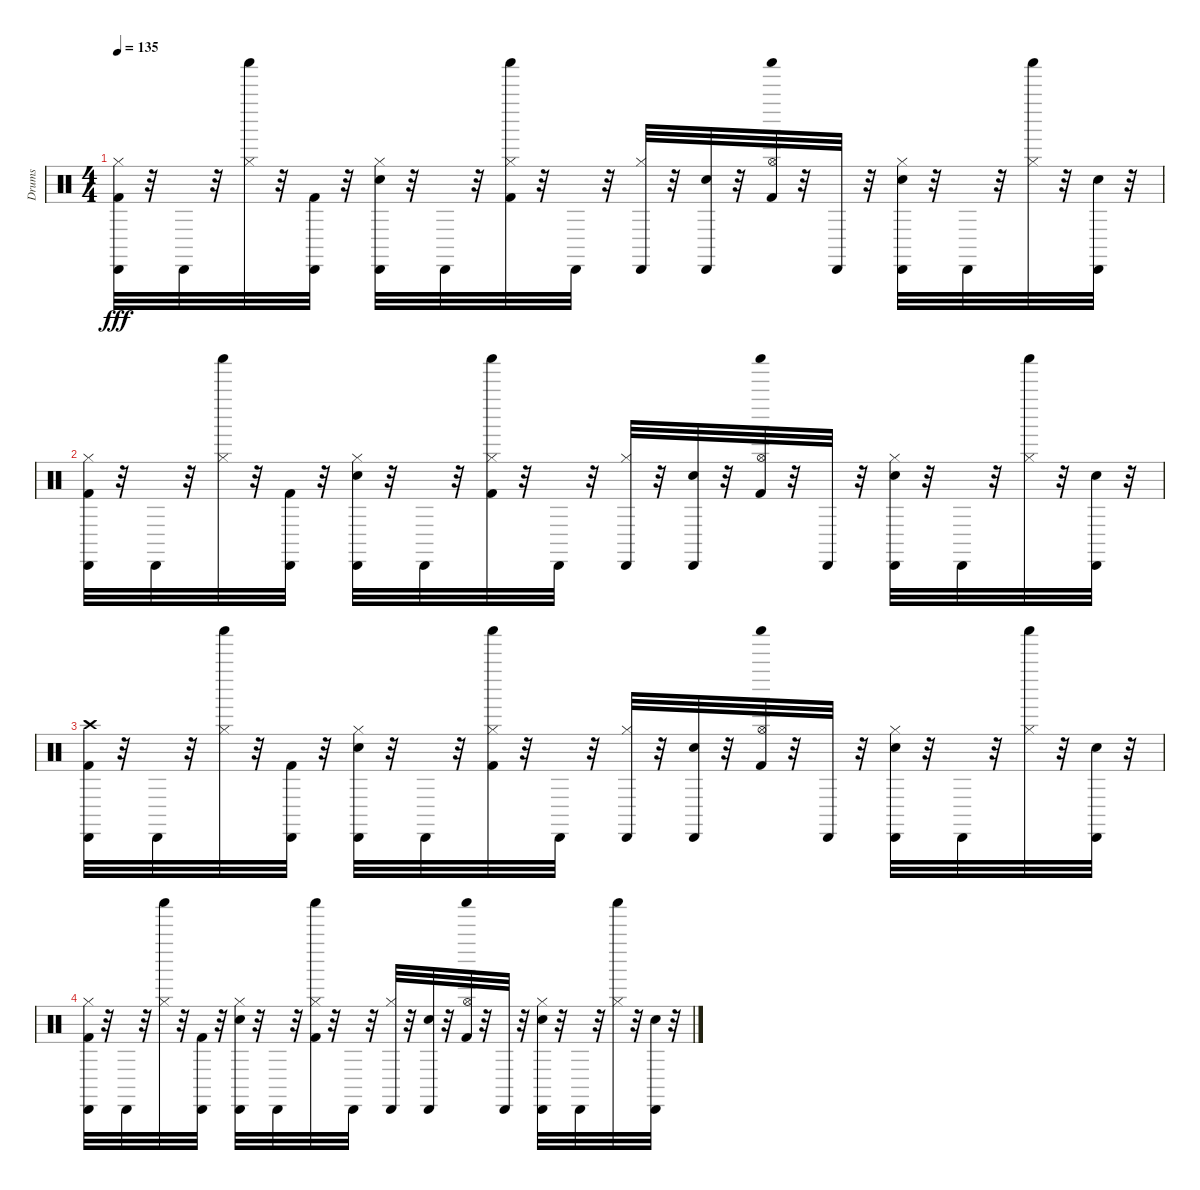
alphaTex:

\track ("Drums" "Drums") {instrument percussion}
\staff {score}
\articulation defaults
\ts (4 4)
\tempo 135
\clef neutral
\ks c
("Hi-Hat (closed)" "Kick (hit) 2" "Cabasa (hit)").32{dy fff} r.32 "Cabasa (hit)".32 r.32 ("Shaker (hit)" "Hi-Hat (closed)").32 r.32 ("Kick (hit) 2" "Cabasa (hit)").32 r.32 ("Snare (hit) 2" "Hi-Hat (closed)" "Cabasa (hit)").32 r.32 "Cabasa (hit)".32 r.32 ("Kick (hit) 2" "Shaker (hit)" "Hi-Hat (closed)").32 r.32 "Cabasa (hit)".32 r.32 ("Hi-Hat (closed)" "Cabasa (hit)").32 r.32 ("Snare (hit) 2" "Cabasa (hit)").32 r.32 ("Kick (hit) 2" "Shaker (hit)" "Hi-Hat (open)").32 r.32 "Cabasa (hit)".32 r.32 ("Snare (hit) 2" "Hi-Hat (closed)" "Cabasa (hit)").32 r.32 "Cabasa (hit)".32 r.32 ("Shaker (hit)" "Hi-Hat (closed)").32 r.32 ("Snare (hit) 2" "Cabasa (hit)").32 r.32 |
("Hi-Hat (closed)" "Kick (hit) 2" "Cabasa (hit)").32 r.32 "Cabasa (hit)".32 r.32 ("Shaker (hit)" "Hi-Hat (closed)").32 r.32 ("Kick (hit) 2" "Cabasa (hit)").32 r.32 ("Snare (hit) 2" "Hi-Hat (closed)" "Cabasa (hit)").32 r.32 "Cabasa (hit)".32 r.32 ("Kick (hit) 2" "Shaker (hit)" "Hi-Hat (closed)").32 r.32 "Cabasa (hit)".32 r.32 ("Hi-Hat (closed)" "Cabasa (hit)").32 r.32 ("Snare (hit) 2" "Cabasa (hit)").32 r.32 ("Kick (hit) 2" "Shaker (hit)" "Hi-Hat (open)").32 r.32 "Cabasa (hit)".32 r.32 ("Snare (hit) 2" "Hi-Hat (closed)" "Cabasa (hit)").32 r.32 "Cabasa (hit)".32 r.32 ("Shaker (hit)" "Hi-Hat (closed)").32 r.32 ("Snare (hit) 2" "Cabasa (hit)").32 r.32 |
("Crash high (hit)" "Kick (hit) 2" "Cabasa (hit)").32 r.32 "Cabasa (hit)".32 r.32 ("Shaker (hit)" "Hi-Hat (closed)").32 r.32 ("Kick (hit) 2" "Cabasa (hit)").32 r.32 ("Snare (hit) 2" "Hi-Hat (closed)" "Cabasa (hit)").32 r.32 "Cabasa (hit)".32 r.32 ("Kick (hit) 2" "Shaker (hit)" "Hi-Hat (closed)").32 r.32 "Cabasa (hit)".32 r.32 ("Hi-Hat (closed)" "Cabasa (hit)").32 r.32 ("Snare (hit) 2" "Cabasa (hit)").32 r.32 ("Kick (hit) 2" "Shaker (hit)" "Hi-Hat (open)").32 r.32 "Cabasa (hit)".32 r.32 ("Snare (hit) 2" "Hi-Hat (closed)" "Cabasa (hit)").32 r.32 "Cabasa (hit)".32 r.32 ("Shaker (hit)" "Hi-Hat (closed)").32 r.32 ("Snare (hit) 2" "Cabasa (hit)").32 r.32 |
("Hi-Hat (closed)" "Kick (hit) 2" "Cabasa (hit)").32 r.32 "Cabasa (hit)".32 r.32 ("Shaker (hit)" "Hi-Hat (closed)").32 r.32 ("Kick (hit) 2" "Cabasa (hit)").32 r.32 ("Snare (hit) 2" "Hi-Hat (closed)" "Cabasa (hit)").32 r.32 "Cabasa (hit)".32 r.32 ("Kick (hit) 2" "Shaker (hit)" "Hi-Hat (closed)").32 r.32 "Cabasa (hit)".32 r.32 ("Hi-Hat (closed)" "Cabasa (hit)").32 r.32 ("Snare (hit) 2" "Cabasa (hit)").32 r.32 ("Kick (hit) 2" "Shaker (hit)" "Hi-Hat (open)").32 r.32 "Cabasa (hit)".32 r.32 ("Snare (hit) 2" "Hi-Hat (closed)" "Cabasa (hit)").32 r.32 "Cabasa (hit)".32 r.32 ("Shaker (hit)" "Hi-Hat (closed)").32 r.32 ("Snare (hit) 2" "Cabasa (hit)").32 r.32
